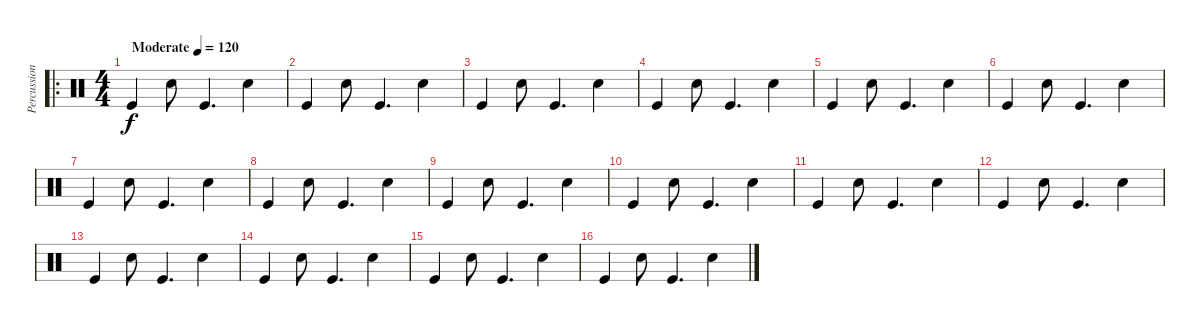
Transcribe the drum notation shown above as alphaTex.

\track ("Percussions" "Percussion") {instrument percussion}
\staff {score}
\articulation defaults
\ro
\ts (4 4)
\tempo (120 "Moderate")
\clef neutral
\ks c "Kick (hit)".4{dy f} "Snare (hit) 2".8 "Kick (hit)".4{d} "Snare (hit) 2".4
|
"Kick (hit)".4 "Snare (hit) 2".8 "Kick (hit)".4{d} "Snare (hit) 2".4 |
"Kick (hit)".4 "Snare (hit) 2".8 "Kick (hit)".4{d} "Snare (hit) 2".4 |
"Kick (hit)".4 "Snare (hit) 2".8 "Kick (hit)".4{d} "Snare (hit) 2".4 |
"Kick (hit)".4 "Snare (hit) 2".8 "Kick (hit)".4{d} "Snare (hit) 2".4 |
"Kick (hit)".4 "Snare (hit) 2".8 "Kick (hit)".4{d} "Snare (hit) 2".4 |
"Kick (hit)".4 "Snare (hit) 2".8 "Kick (hit)".4{d} "Snare (hit) 2".4 |
"Kick (hit)".4 "Snare (hit) 2".8 "Kick (hit)".4{d} "Snare (hit) 2".4 |
"Kick (hit)".4 "Snare (hit) 2".8 "Kick (hit)".4{d} "Snare (hit) 2".4 |
"Kick (hit)".4 "Snare (hit) 2".8 "Kick (hit)".4{d} "Snare (hit) 2".4 |
"Kick (hit)".4 "Snare (hit) 2".8 "Kick (hit)".4{d} "Snare (hit) 2".4 |
"Kick (hit)".4 "Snare (hit) 2".8 "Kick (hit)".4{d} "Snare (hit) 2".4 |
"Kick (hit)".4 "Snare (hit) 2".8 "Kick (hit)".4{d} "Snare (hit) 2".4 |
"Kick (hit)".4 "Snare (hit) 2".8 "Kick (hit)".4{d} "Snare (hit) 2".4 |
"Kick (hit)".4 "Snare (hit) 2".8 "Kick (hit)".4{d} "Snare (hit) 2".4 |
"Kick (hit)".4 "Snare (hit) 2".8 "Kick (hit)".4{d} "Snare (hit) 2".4
